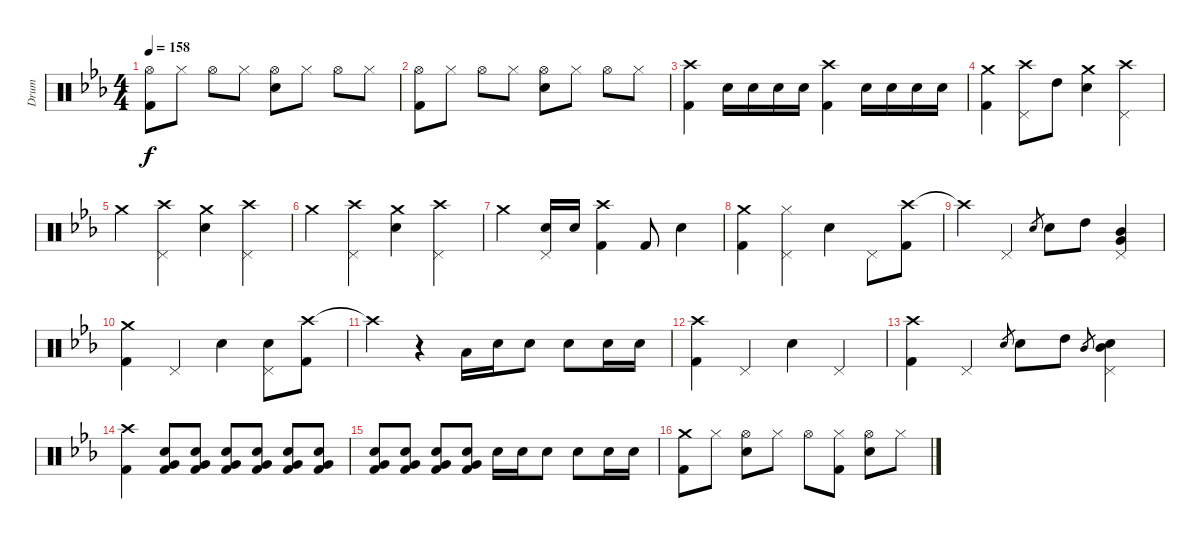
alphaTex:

\track ("Drum" "Drum") {instrument percussion}
\staff {score}
\articulation defaults
\ts (4 4)
\tempo 158
\clef neutral
\ks eb
("Hi-Hat (open)" "Kick (hit) 2").8{dy f} "Hi-Hat (closed)".8 "Hi-Hat (open)".8 "Hi-Hat (closed)".8 ("Hi-Hat (open)" "Electric Snare (hit)").8 "Hi-Hat (closed)".8 "Hi-Hat (open)".8 "Hi-Hat (closed)".8 |
("Hi-Hat (open)" "Kick (hit) 2").8 "Hi-Hat (closed)".8 "Hi-Hat (open)".8 "Hi-Hat (closed)".8 ("Hi-Hat (open)" "Electric Snare (hit)").8 "Hi-Hat (closed)".8 "Hi-Hat (open)".8 "Hi-Hat (closed)".8 |
("Crash high (hit)" "Kick (hit) 2").4 "Electric Snare (hit)".16 "Electric Snare (hit)".16 "Electric Snare (hit)".16 "Electric Snare (hit)".16 ("Crash high (hit)" "Kick (hit) 2").4 "Electric Snare (hit)".16 "Electric Snare (hit)".16 "Electric Snare (hit)".16 "Electric Snare (hit)".16 |
("Crash medium (hit)" "Kick (hit) 2").4 ("Crash high (hit)" "Pedal Hi-Hat (hit)").8 "High Tom (hit)".8 ("Crash medium (hit)" "Electric Snare (hit)").4 ("Crash high (hit)" "Pedal Hi-Hat (hit)").4 |
"Crash medium (hit)".4 ("Crash high (hit)" "Pedal Hi-Hat (hit)").4 ("Crash medium (hit)" "Electric Snare (hit)").4 ("Crash high (hit)" "Pedal Hi-Hat (hit)").4 |
"Crash medium (hit)".4 ("Crash high (hit)" "Pedal Hi-Hat (hit)").4 ("Crash medium (hit)" "Electric Snare (hit)").4 ("Crash high (hit)" "Pedal Hi-Hat (hit)").4 |
"Crash medium (hit)".4 ("Electric Snare (hit)" "Pedal Hi-Hat (hit)").16 "Electric Snare (hit)".16 ("Crash high (hit)" "Kick (hit) 2").4 "Kick (hit) 2".8 "Electric Snare (hit)".4 |
("Crash medium (hit)" "Kick (hit) 2").4 ("Hi-Hat (closed)" "Pedal Hi-Hat (hit)").4 "Electric Snare (hit)".4 "Pedal Hi-Hat (hit)".8 ("Crash high (hit)" "Kick (hit) 2").8 |
"Crash high (hit)"{t}.4 "Pedal Hi-Hat (hit)".4 "Electric Snare (hit)".8{gr} "Electric Snare (hit)".8 "High Tom (hit)".8 ("Mid Tom (hit)" "Very Low Tom (hit)" "Pedal Hi-Hat (hit)").4 |
("Crash medium (hit)" "Kick (hit) 2").4 "Pedal Hi-Hat (hit)".4 "Electric Snare (hit)".4 ("Electric Snare (hit)" "Pedal Hi-Hat (hit)").8 ("Crash high (hit)" "Kick (hit) 2").8 |
"Crash high (hit)"{t}.4 r.4 "Low Tom (hit)".16 "Electric Snare (hit)".16 "Electric Snare (hit)".8 "Electric Snare (hit)".8 "Electric Snare (hit)".16 "Electric Snare (hit)".16 |
("Crash high (hit)" "Kick (hit) 2").4 "Pedal Hi-Hat (hit)".4 "Electric Snare (hit)".4 "Pedal Hi-Hat (hit)".4 |
("Crash high (hit)" "Kick (hit) 2").4 "Pedal Hi-Hat (hit)".4 "Electric Snare (hit)".8{gr} "Electric Snare (hit)".8 "High Tom (hit)".8 "Mid Tom (hit)".8{gr} ("Mid Tom (hit)" "Electric Snare (hit)" "Pedal Hi-Hat (hit)").4 |
("Crash high (hit)" "Kick (hit) 2").4 ("Electric Snare (hit)" "Very Low Tom (hit)" "Kick (hit) 2").8 ("Electric Snare (hit)" "Very Low Tom (hit)" "Kick (hit) 2").8 ("Electric Snare (hit)" "Very Low Tom (hit)" "Kick (hit) 2").8 ("Electric Snare (hit)" "Very Low Tom (hit)" "Kick (hit) 2").8 ("Electric Snare (hit)" "Very Low Tom (hit)" "Kick (hit) 2").8 ("Electric Snare (hit)" "Very Low Tom (hit)" "Kick (hit) 2").8 |
("Electric Snare (hit)" "Very Low Tom (hit)" "Kick (hit) 2").8 ("Electric Snare (hit)" "Very Low Tom (hit)" "Kick (hit) 2").8 ("Electric Snare (hit)" "Very Low Tom (hit)" "Kick (hit) 2").8 ("Electric Snare (hit)" "Very Low Tom (hit)" "Kick (hit) 2").8 "Electric Snare (hit)".16 "Electric Snare (hit)".16 "Electric Snare (hit)".8 "Electric Snare (hit)".8 "Electric Snare (hit)".16 "Electric Snare (hit)".16 |
("Crash medium (hit)" "Kick (hit) 2").8 "Hi-Hat (closed)".8 ("Hi-Hat (open)" "Electric Snare (hit)").8 "Hi-Hat (closed)".8 "Hi-Hat (open)".8 ("Hi-Hat (closed)" "Kick (hit) 2").8 ("Hi-Hat (open)" "Electric Snare (hit)").8 "Hi-Hat (closed)".8
